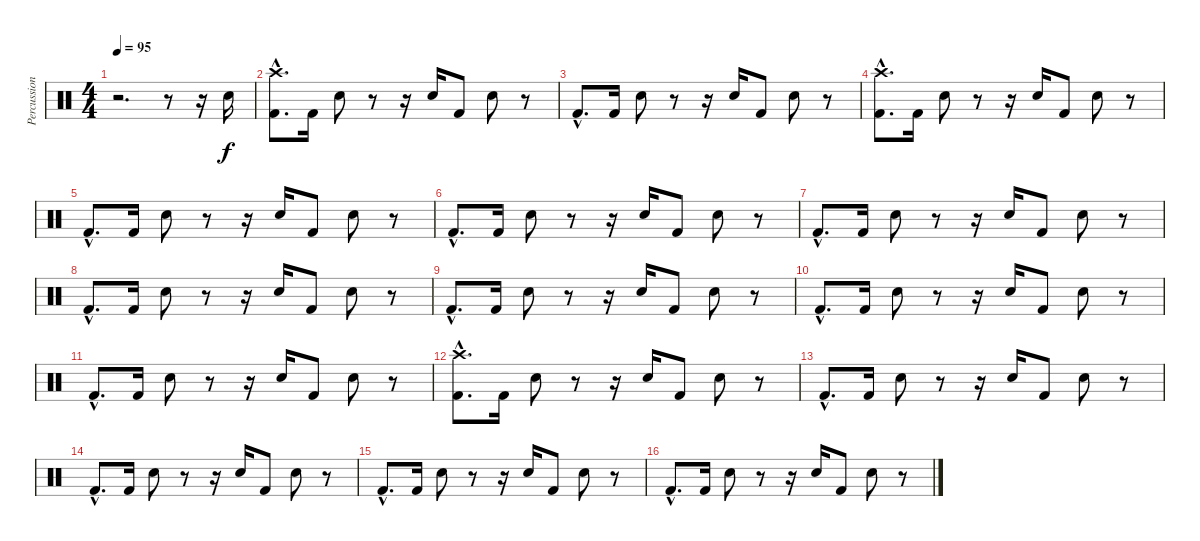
\track ("Percussions" "Percussion") {instrument percussion}
\staff {score}
\articulation defaults
\ts (4 4)
\tempo 95
\clef neutral
\ks c
r.2{d dy f} r.8 r.16 "Electric Snare (hit)".16 |
("Crash high (hit)"{hac} "Kick (hit) 2"{hac}).8{d} "Kick (hit) 2".16 "Electric Snare (hit)".8 r.8 r.16 "Electric Snare (hit)".16 "Kick (hit) 2".8 "Electric Snare (hit)".8 r.8 |
"Kick (hit) 2"{hac}.8{d} "Kick (hit) 2".16 "Electric Snare (hit)".8 r.8 r.16 "Electric Snare (hit)".16 "Kick (hit) 2".8 "Electric Snare (hit)".8 r.8 |
("Crash high (hit)"{hac} "Kick (hit) 2"{hac}).8{d} "Kick (hit) 2".16 "Electric Snare (hit)".8 r.8 r.16 "Electric Snare (hit)".16 "Kick (hit) 2".8 "Electric Snare (hit)".8 r.8 |
"Kick (hit) 2"{hac}.8{d} "Kick (hit) 2".16 "Electric Snare (hit)".8 r.8 r.16 "Electric Snare (hit)".16 "Kick (hit) 2".8 "Electric Snare (hit)".8 r.8 |
"Kick (hit) 2"{hac}.8{d} "Kick (hit) 2".16 "Electric Snare (hit)".8 r.8 r.16 "Electric Snare (hit)".16 "Kick (hit) 2".8 "Electric Snare (hit)".8 r.8 |
"Kick (hit) 2"{hac}.8{d} "Kick (hit) 2".16 "Electric Snare (hit)".8 r.8 r.16 "Electric Snare (hit)".16 "Kick (hit) 2".8 "Electric Snare (hit)".8 r.8 |
"Kick (hit) 2"{hac}.8{d} "Kick (hit) 2".16 "Electric Snare (hit)".8 r.8 r.16 "Electric Snare (hit)".16 "Kick (hit) 2".8 "Electric Snare (hit)".8 r.8 |
"Kick (hit) 2"{hac}.8{d} "Kick (hit) 2".16 "Electric Snare (hit)".8 r.8 r.16 "Electric Snare (hit)".16 "Kick (hit) 2".8 "Electric Snare (hit)".8 r.8 |
"Kick (hit) 2"{hac}.8{d} "Kick (hit) 2".16 "Electric Snare (hit)".8 r.8 r.16 "Electric Snare (hit)".16 "Kick (hit) 2".8 "Electric Snare (hit)".8 r.8 |
"Kick (hit) 2"{hac}.8{d} "Kick (hit) 2".16 "Electric Snare (hit)".8 r.8 r.16 "Electric Snare (hit)".16 "Kick (hit) 2".8 "Electric Snare (hit)".8 r.8 |
("Crash high (hit)"{hac} "Kick (hit) 2"{hac}).8{d} "Kick (hit) 2".16 "Electric Snare (hit)".8 r.8 r.16 "Electric Snare (hit)".16 "Kick (hit) 2".8 "Electric Snare (hit)".8 r.8 |
"Kick (hit) 2"{hac}.8{d} "Kick (hit) 2".16 "Electric Snare (hit)".8 r.8 r.16 "Electric Snare (hit)".16 "Kick (hit) 2".8 "Electric Snare (hit)".8 r.8 |
"Kick (hit) 2"{hac}.8{d} "Kick (hit) 2".16 "Electric Snare (hit)".8 r.8 r.16 "Electric Snare (hit)".16 "Kick (hit) 2".8 "Electric Snare (hit)".8 r.8 |
"Kick (hit) 2"{hac}.8{d} "Kick (hit) 2".16 "Electric Snare (hit)".8 r.8 r.16 "Electric Snare (hit)".16 "Kick (hit) 2".8 "Electric Snare (hit)".8 r.8 |
"Kick (hit) 2"{hac}.8{d} "Kick (hit) 2".16 "Electric Snare (hit)".8 r.8 r.16 "Electric Snare (hit)".16 "Kick (hit) 2".8 "Electric Snare (hit)".8 r.8
